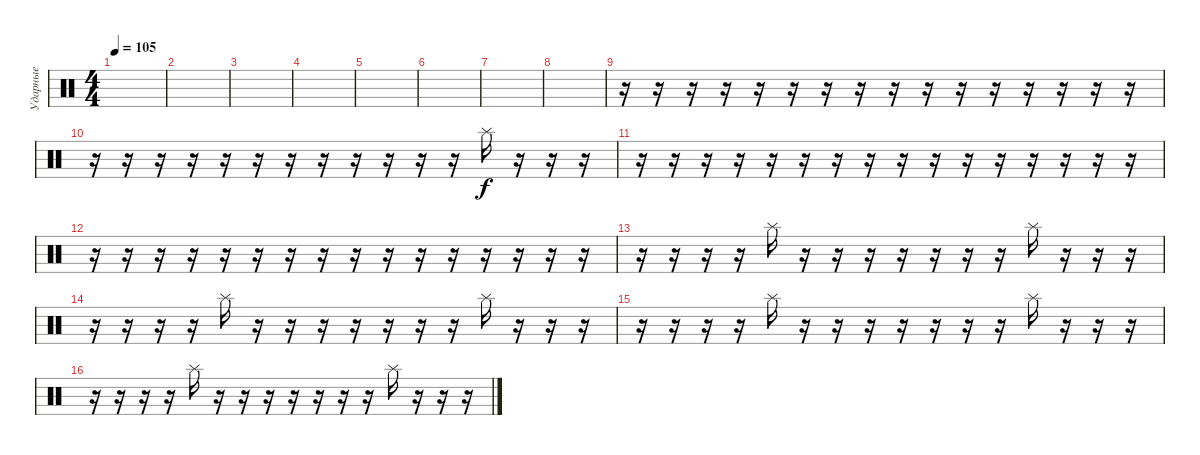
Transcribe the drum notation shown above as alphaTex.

\track ("Ударные" "Ударные") {instrument percussion}
\staff {score}
\articulation defaults
\ts (4 4)
\tempo 105
\clef neutral
\ks c
|
|
|
|
|
|
|
|
r.16 r.16 r.16 r.16 r.16 r.16 r.16 r.16 r.16 r.16 r.16 r.16 r.16 r.16 r.16 r.16 |
r.16 r.16 r.16 r.16 r.16 r.16 r.16 r.16 r.16 r.16 r.16 r.16 "Splash (hit)".16 r.16 r.16 r.16 |
r.16 r.16 r.16 r.16 r.16 r.16 r.16 r.16 r.16 r.16 r.16 r.16 r.16 r.16 r.16 r.16 |
r.16 r.16 r.16 r.16 r.16 r.16 r.16 r.16 r.16 r.16 r.16 r.16 r.16 r.16 r.16 r.16 |
r.16 r.16 r.16 r.16 "Splash (hit)".16 r.16 r.16 r.16 r.16 r.16 r.16 r.16 "Splash (hit)".16 r.16 r.16 r.16 |
r.16 r.16 r.16 r.16 "Splash (hit)".16 r.16 r.16 r.16 r.16 r.16 r.16 r.16 "Splash (hit)".16 r.16 r.16 r.16 |
r.16 r.16 r.16 r.16 "Splash (hit)".16 r.16 r.16 r.16 r.16 r.16 r.16 r.16 "Splash (hit)".16 r.16 r.16 r.16 |
r.16 r.16 r.16 r.16 "Splash (hit)".16 r.16 r.16 r.16 r.16 r.16 r.16 r.16 "Splash (hit)".16 r.16 r.16 r.16
